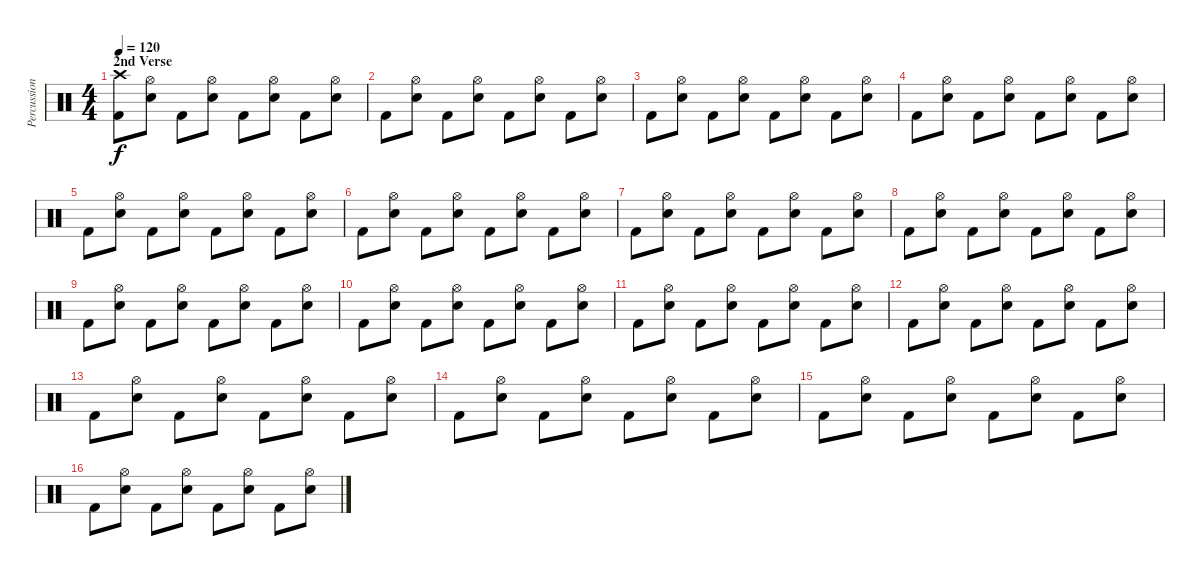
\track ("Percussioni" "Percussion") {instrument percussion}
\staff {score}
\articulation defaults
\ts (4 4)
\section ("" "2nd Verse")
\tempo 120
\clef neutral
\ks c
("Crash high (hit)" "Kick (hit) 2").8{dy f} ("Hi-Hat (open)" "Electric Snare (hit)").8 "Kick (hit) 2".8 ("Hi-Hat (open)" "Electric Snare (hit)").8 "Kick (hit) 2".8 ("Hi-Hat (open)" "Electric Snare (hit)").8 "Kick (hit) 2".8 ("Hi-Hat (open)" "Electric Snare (hit)").8 |
"Kick (hit) 2".8 ("Hi-Hat (open)" "Electric Snare (hit)").8 "Kick (hit) 2".8 ("Hi-Hat (open)" "Electric Snare (hit)").8 "Kick (hit) 2".8 ("Hi-Hat (open)" "Electric Snare (hit)").8 "Kick (hit) 2".8 ("Hi-Hat (open)" "Electric Snare (hit)").8 |
"Kick (hit) 2".8 ("Hi-Hat (open)" "Electric Snare (hit)").8 "Kick (hit) 2".8 ("Hi-Hat (open)" "Electric Snare (hit)").8 "Kick (hit) 2".8 ("Hi-Hat (open)" "Electric Snare (hit)").8 "Kick (hit) 2".8 ("Hi-Hat (open)" "Electric Snare (hit)").8 |
"Kick (hit) 2".8 ("Hi-Hat (open)" "Electric Snare (hit)").8 "Kick (hit) 2".8 ("Hi-Hat (open)" "Electric Snare (hit)").8 "Kick (hit) 2".8 ("Hi-Hat (open)" "Electric Snare (hit)").8 "Kick (hit) 2".8 ("Hi-Hat (open)" "Electric Snare (hit)").8 |
"Kick (hit) 2".8 ("Hi-Hat (open)" "Electric Snare (hit)").8 "Kick (hit) 2".8 ("Hi-Hat (open)" "Electric Snare (hit)").8 "Kick (hit) 2".8 ("Hi-Hat (open)" "Electric Snare (hit)").8 "Kick (hit) 2".8 ("Hi-Hat (open)" "Electric Snare (hit)").8 |
"Kick (hit) 2".8 ("Hi-Hat (open)" "Electric Snare (hit)").8 "Kick (hit) 2".8 ("Hi-Hat (open)" "Electric Snare (hit)").8 "Kick (hit) 2".8 ("Hi-Hat (open)" "Electric Snare (hit)").8 "Kick (hit) 2".8 ("Hi-Hat (open)" "Electric Snare (hit)").8 |
"Kick (hit) 2".8 ("Hi-Hat (open)" "Electric Snare (hit)").8 "Kick (hit) 2".8 ("Hi-Hat (open)" "Electric Snare (hit)").8 "Kick (hit) 2".8 ("Hi-Hat (open)" "Electric Snare (hit)").8 "Kick (hit) 2".8 ("Hi-Hat (open)" "Electric Snare (hit)").8 |
"Kick (hit) 2".8 ("Hi-Hat (open)" "Electric Snare (hit)").8 "Kick (hit) 2".8 ("Hi-Hat (open)" "Electric Snare (hit)").8 "Kick (hit) 2".8 ("Hi-Hat (open)" "Electric Snare (hit)").8 "Kick (hit) 2".8 ("Hi-Hat (open)" "Electric Snare (hit)").8 |
"Kick (hit) 2".8 ("Hi-Hat (open)" "Electric Snare (hit)").8 "Kick (hit) 2".8 ("Hi-Hat (open)" "Electric Snare (hit)").8 "Kick (hit) 2".8 ("Hi-Hat (open)" "Electric Snare (hit)").8 "Kick (hit) 2".8 ("Hi-Hat (open)" "Electric Snare (hit)").8 |
"Kick (hit) 2".8 ("Hi-Hat (open)" "Electric Snare (hit)").8 "Kick (hit) 2".8 ("Hi-Hat (open)" "Electric Snare (hit)").8 "Kick (hit) 2".8 ("Hi-Hat (open)" "Electric Snare (hit)").8 "Kick (hit) 2".8 ("Hi-Hat (open)" "Electric Snare (hit)").8 |
"Kick (hit) 2".8 ("Hi-Hat (open)" "Electric Snare (hit)").8 "Kick (hit) 2".8 ("Hi-Hat (open)" "Electric Snare (hit)").8 "Kick (hit) 2".8 ("Hi-Hat (open)" "Electric Snare (hit)").8 "Kick (hit) 2".8 ("Hi-Hat (open)" "Electric Snare (hit)").8 |
"Kick (hit) 2".8 ("Hi-Hat (open)" "Electric Snare (hit)").8 "Kick (hit) 2".8 ("Hi-Hat (open)" "Electric Snare (hit)").8 "Kick (hit) 2".8 ("Hi-Hat (open)" "Electric Snare (hit)").8 "Kick (hit) 2".8 ("Hi-Hat (open)" "Electric Snare (hit)").8 |
"Kick (hit) 2".8 ("Hi-Hat (open)" "Electric Snare (hit)").8 "Kick (hit) 2".8 ("Hi-Hat (open)" "Electric Snare (hit)").8 "Kick (hit) 2".8 ("Hi-Hat (open)" "Electric Snare (hit)").8 "Kick (hit) 2".8 ("Hi-Hat (open)" "Electric Snare (hit)").8 |
"Kick (hit) 2".8 ("Hi-Hat (open)" "Electric Snare (hit)").8 "Kick (hit) 2".8 ("Hi-Hat (open)" "Electric Snare (hit)").8 "Kick (hit) 2".8 ("Hi-Hat (open)" "Electric Snare (hit)").8 "Kick (hit) 2".8 ("Hi-Hat (open)" "Electric Snare (hit)").8 |
"Kick (hit) 2".8 ("Hi-Hat (open)" "Electric Snare (hit)").8 "Kick (hit) 2".8 ("Hi-Hat (open)" "Electric Snare (hit)").8 "Kick (hit) 2".8 ("Hi-Hat (open)" "Electric Snare (hit)").8 "Kick (hit) 2".8 ("Hi-Hat (open)" "Electric Snare (hit)").8 |
"Kick (hit) 2".8 ("Hi-Hat (open)" "Electric Snare (hit)").8 "Kick (hit) 2".8 ("Hi-Hat (open)" "Electric Snare (hit)").8 "Kick (hit) 2".8 ("Hi-Hat (open)" "Electric Snare (hit)").8 "Kick (hit) 2".8 ("Hi-Hat (open)" "Electric Snare (hit)").8
